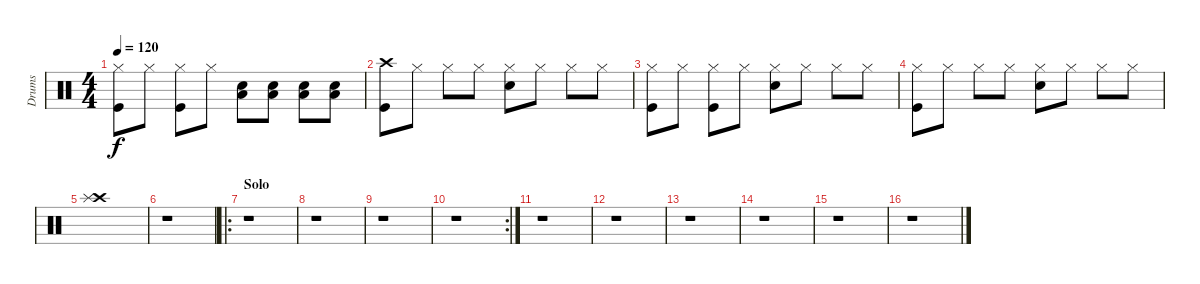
\track ("Drums" "Drums") {instrument percussion}
\staff {score}
\articulation defaults
\ts (4 4)
\tempo 120
\clef neutral
\ks c
("Hi-Hat (closed)" "Kick (hit)").8{dy f} "Hi-Hat (closed)".8 ("Hi-Hat (closed)" "Kick (hit)").8 "Hi-Hat (closed)".8 ("Low Tom (hit)" "Snare (hit) 2").8 ("Low Tom (hit)" "Snare (hit) 2").8 ("Low Tom (hit)" "Snare (hit) 2").8 ("Low Tom (hit)" "Snare (hit) 2").8 |
("Crash high (hit)" "Kick (hit)").8 "Hi-Hat (closed)".8 "Hi-Hat (closed)".8 "Hi-Hat (closed)".8 ("Hi-Hat (closed)" "Snare (hit) 2").8 "Hi-Hat (closed)".8 "Hi-Hat (closed)".8 "Hi-Hat (closed)".8 |
("Hi-Hat (closed)" "Kick (hit)").8 "Hi-Hat (closed)".8 ("Hi-Hat (closed)" "Kick (hit)").8 "Hi-Hat (closed)".8 ("Hi-Hat (closed)" "Snare (hit) 2").8 "Hi-Hat (closed)".8 "Hi-Hat (closed)".8 "Hi-Hat (closed)".8 |
("Hi-Hat (closed)" "Kick (hit)").8 "Hi-Hat (closed)".8 "Hi-Hat (closed)".8 "Hi-Hat (closed)".8 ("Hi-Hat (closed)" "Snare (hit) 2").8 "Hi-Hat (closed)".8 "Hi-Hat (closed)".8 "Hi-Hat (closed)".8 |
("Crash high (hit)" "Splash (hit)").1 |
r.1 |
\ro
\section ("" "Solo")
r.1 |
r.1 |
r.1 |
\rc 2
r.1 |
r.1 |
r.1 |
r.1 |
r.1 |
r.1 |
r.1
